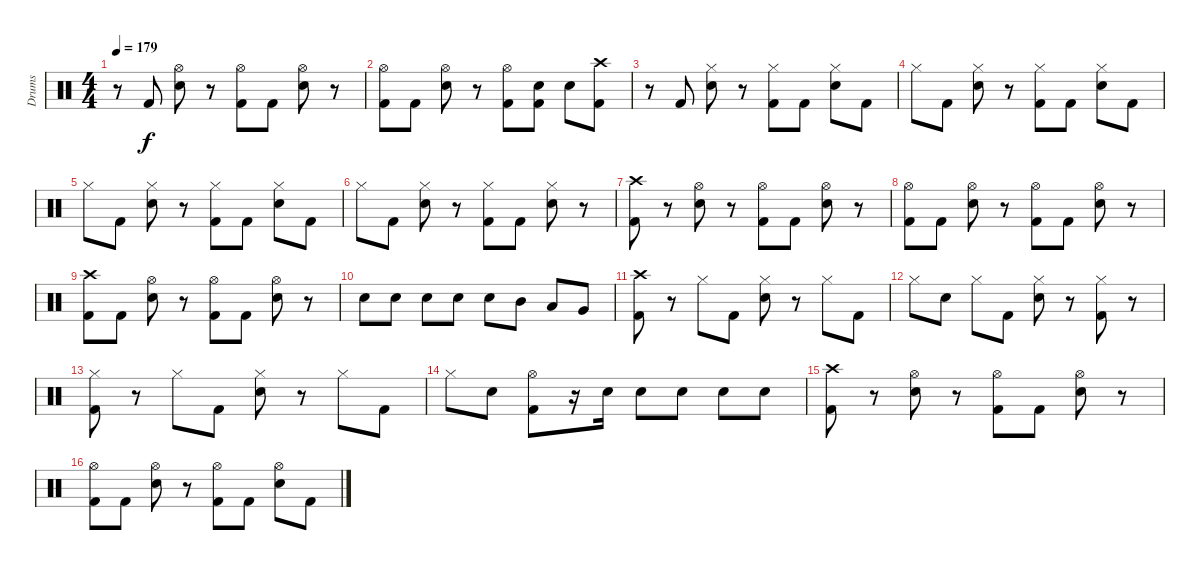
\track ("Drums" "Drums") {instrument percussion}
\staff {score}
\articulation defaults
\ts (4 4)
\tempo 179
\clef neutral
\ks c
r.8{dy f} "Kick (hit) 2".8 ("Hi-Hat (open)" "Snare (hit) 2").8 r.8 ("Hi-Hat (open)" "Kick (hit) 2").8 "Kick (hit) 2".8 ("Hi-Hat (open)" "Snare (hit) 2").8 r.8 |
("Hi-Hat (open)" "Kick (hit) 2").8 "Kick (hit) 2".8 ("Hi-Hat (open)" "Snare (hit) 2").8 r.8 ("Hi-Hat (open)" "Kick (hit) 2").8 ("Snare (hit) 2" "Kick (hit) 2").8 "Snare (hit) 2".8 ("Crash high (hit)" "Kick (hit) 2").8 |
r.8 "Kick (hit) 2".8 ("Hi-Hat (closed)" "Snare (hit) 2").8 r.8 ("Hi-Hat (closed)" "Kick (hit) 2").8 "Kick (hit) 2".8 ("Hi-Hat (closed)" "Snare (hit) 2").8 "Kick (hit) 2".8 |
"Hi-Hat (closed)".8 "Kick (hit) 2".8 ("Hi-Hat (closed)" "Snare (hit) 2").8 r.8 ("Hi-Hat (closed)" "Kick (hit) 2").8 "Kick (hit) 2".8 ("Hi-Hat (closed)" "Snare (hit) 2").8 "Kick (hit) 2".8 |
"Hi-Hat (closed)".8 "Kick (hit) 2".8 ("Hi-Hat (closed)" "Snare (hit) 2").8 r.8 ("Hi-Hat (closed)" "Kick (hit) 2").8 "Kick (hit) 2".8 ("Hi-Hat (closed)" "Snare (hit) 2").8 "Kick (hit) 2".8 |
"Hi-Hat (closed)".8 "Kick (hit) 2".8 ("Hi-Hat (closed)" "Snare (hit) 2").8 r.8 ("Hi-Hat (closed)" "Kick (hit) 2").8 "Kick (hit) 2".8 ("Hi-Hat (closed)" "Snare (hit) 2").8 r.8 |
("Crash high (hit)" "Kick (hit) 2").8 r.8 ("Hi-Hat (open)" "Snare (hit) 2").8 r.8 ("Hi-Hat (open)" "Kick (hit) 2").8 "Kick (hit) 2".8 ("Hi-Hat (open)" "Snare (hit) 2").8 r.8 |
("Hi-Hat (open)" "Kick (hit) 2").8 "Kick (hit) 2".8 ("Hi-Hat (open)" "Snare (hit) 2").8 r.8 ("Hi-Hat (open)" "Kick (hit) 2").8 "Kick (hit) 2".8 ("Hi-Hat (open)" "Snare (hit) 2").8 r.8 |
("Crash high (hit)" "Kick (hit) 2").8 "Kick (hit) 2".8 ("Hi-Hat (open)" "Snare (hit) 2").8 r.8 ("Hi-Hat (open)" "Kick (hit) 2").8 "Kick (hit) 2".8 ("Hi-Hat (open)" "Snare (hit) 2").8 r.8 |
"Snare (hit) 2".8 "Snare (hit) 2".8 "Snare (hit) 2".8 "Snare (hit) 2".8 "Snare (hit) 2".8 "Mid Tom (hit)".8 "Low Tom (hit)".8 "Very Low Tom (hit)".8 |
("Crash high (hit)" "Kick (hit) 2").8 r.8 "Hi-Hat (closed)".8 "Kick (hit) 2".8 ("Hi-Hat (closed)" "Snare (hit) 2").8 r.8 "Hi-Hat (closed)".8 "Kick (hit) 2".8 |
"Hi-Hat (closed)".8 "Snare (hit) 2".8 "Hi-Hat (closed)".8 "Kick (hit) 2".8 ("Hi-Hat (closed)" "Snare (hit) 2").8 r.8 ("Hi-Hat (closed)" "Kick (hit) 2").8 r.8 |
("Hi-Hat (closed)" "Kick (hit) 2").8 r.8 "Hi-Hat (closed)".8 "Kick (hit) 2".8 ("Hi-Hat (closed)" "Snare (hit) 2").8 r.8 "Hi-Hat (closed)".8 "Kick (hit) 2".8 |
"Hi-Hat (closed)".8 "Snare (hit) 2".8 ("Hi-Hat (open)" "Kick (hit) 2").8 r.16 "Snare (hit) 2".16 "Snare (hit) 2".8 "Snare (hit) 2".8 "Snare (hit) 2".8 "Snare (hit) 2".8 |
("Crash high (hit)" "Kick (hit) 2").8 r.8 ("Hi-Hat (open)" "Snare (hit) 2").8 r.8 ("Hi-Hat (open)" "Kick (hit) 2").8 "Kick (hit) 2".8 ("Hi-Hat (open)" "Snare (hit) 2").8 r.8 |
("Hi-Hat (open)" "Kick (hit) 2").8 "Kick (hit) 2".8 ("Hi-Hat (open)" "Snare (hit) 2").8 r.8 ("Hi-Hat (open)" "Kick (hit) 2").8 "Kick (hit) 2".8 ("Hi-Hat (open)" "Snare (hit) 2").8 "Kick (hit) 2".8
